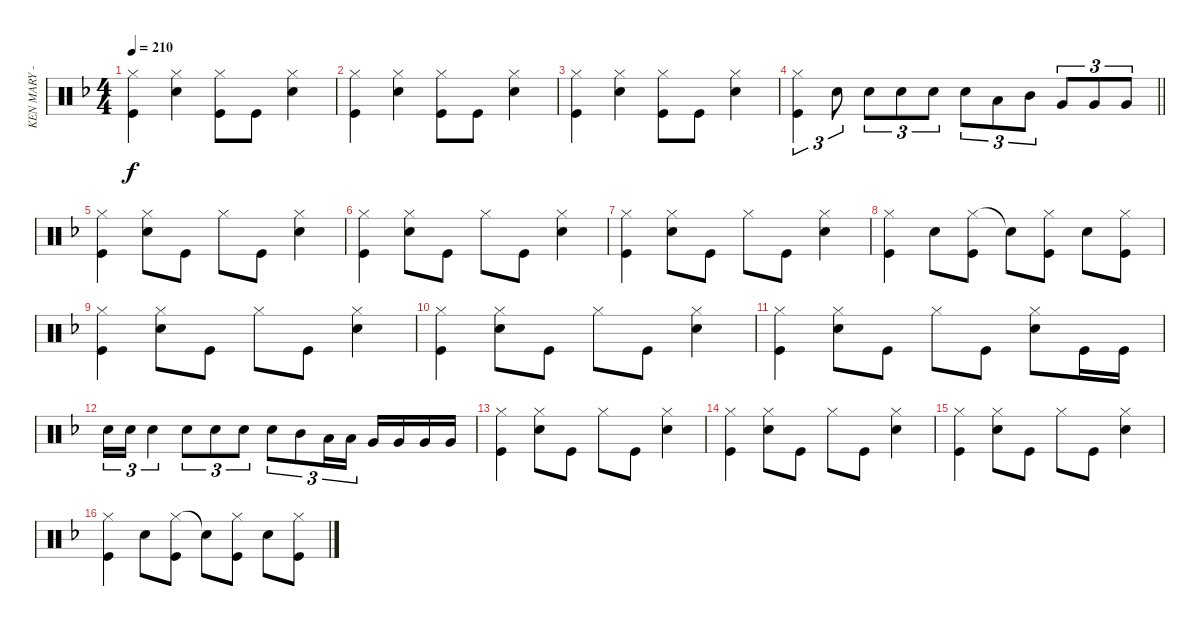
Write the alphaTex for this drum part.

\track ("KEN MARY - DRUMS" "KEN MARY -") {instrument percussion}
\staff {score}
\articulation defaults
\ts (4 4)
\tempo 210
\clef neutral
\ks f
("Hi-Hat (closed)" "Kick (hit)").4{dy f} ("Hi-Hat (closed)" "Snare (hit) 2").4 ("Hi-Hat (closed)" "Kick (hit)").8 "Kick (hit)".8 ("Hi-Hat (closed)" "Snare (hit) 2").4 |
("Hi-Hat (closed)" "Kick (hit)").4 ("Hi-Hat (closed)" "Snare (hit) 2").4 ("Hi-Hat (closed)" "Kick (hit)").8 "Kick (hit)".8 ("Hi-Hat (closed)" "Snare (hit) 2").4 |
("Hi-Hat (closed)" "Kick (hit)").4 ("Hi-Hat (closed)" "Snare (hit) 2").4 ("Hi-Hat (closed)" "Kick (hit)").8 "Kick (hit)".8 ("Hi-Hat (closed)" "Snare (hit) 2").4 |
\barLineRight lightlight
("Hi-Hat (closed)" "Kick (hit)").4{tu (3 2)} "Snare (hit) 2".8{tu (3 2)} "Snare (hit) 2".8{tu (3 2)} "Snare (hit) 2".8{tu (3 2)} "Snare (hit) 2".8{tu (3 2)} "Snare (hit) 2".8{tu (3 2)} "Low Tom (hit)".8{tu (3 2)} "Mid Tom (hit)".8{tu (3 2)} "Very Low Tom (hit)".8{tu (3 2)} "Very Low Tom (hit)".8{tu (3 2)} "Very Low Tom (hit)".8{tu (3 2)} |
("Hi-Hat (closed)" "Kick (hit)").4 ("Hi-Hat (closed)" "Snare (hit) 2").8 "Kick (hit)".8 "Hi-Hat (closed)".8 "Kick (hit)".8 ("Hi-Hat (closed)" "Snare (hit) 2").4 |
("Hi-Hat (closed)" "Kick (hit)").4 ("Hi-Hat (closed)" "Snare (hit) 2").8 "Kick (hit)".8 "Hi-Hat (closed)".8 "Kick (hit)".8 ("Hi-Hat (closed)" "Snare (hit) 2").4 |
("Hi-Hat (closed)" "Kick (hit)").4 ("Hi-Hat (closed)" "Snare (hit) 2").8 "Kick (hit)".8 "Hi-Hat (closed)".8 "Kick (hit)".8 ("Hi-Hat (closed)" "Snare (hit) 2").4 |
("Hi-Hat (closed)" "Kick (hit)").4 "Snare (hit) 2".8 ("Hi-Hat (closed)" "Kick (hit)").8 "Snare (hit)"{t}.8 ("Hi-Hat (closed)" "Kick (hit)").8 "Snare (hit) 2".8 ("Hi-Hat (closed)" "Kick (hit)").8 |
("Hi-Hat (closed)" "Kick (hit)").4 ("Hi-Hat (closed)" "Snare (hit) 2").8 "Kick (hit)".8 "Hi-Hat (closed)".8 "Kick (hit)".8 ("Hi-Hat (closed)" "Snare (hit) 2").4 |
("Hi-Hat (closed)" "Kick (hit)").4 ("Hi-Hat (closed)" "Snare (hit) 2").8 "Kick (hit)".8 "Hi-Hat (closed)".8 "Kick (hit)".8 ("Hi-Hat (closed)" "Snare (hit) 2").4 |
("Hi-Hat (closed)" "Kick (hit)").4 ("Hi-Hat (closed)" "Snare (hit) 2").8 "Kick (hit)".8 "Hi-Hat (closed)".8 "Kick (hit)".8 ("Hi-Hat (closed)" "Snare (hit) 2").8 "Kick (hit)".16 "Kick (hit)".16 |
"Snare (hit) 2".16{tu (3 2)} "Snare (hit) 2".16{tu (3 2)} "Snare (hit) 2".4{tu (3 2)} "Snare (hit) 2".8{tu (3 2)} "Snare (hit) 2".8{tu (3 2)} "Snare (hit) 2".8{tu (3 2)} "Snare (hit) 2".8{tu (3 2)} "Mid Tom (hit)".8{tu (3 2)} "Low Tom (hit)".16{tu (3 2)} "Low Tom (hit)".16{tu (3 2)} "Very Low Tom (hit)".16 "Very Low Tom (hit)".16 "Very Low Tom (hit)".16 "Very Low Tom (hit)".16 |
("Hi-Hat (closed)" "Kick (hit)").4 ("Hi-Hat (closed)" "Snare (hit) 2").8 "Kick (hit)".8 "Hi-Hat (closed)".8 "Kick (hit)".8 ("Hi-Hat (closed)" "Snare (hit) 2").4 |
("Hi-Hat (closed)" "Kick (hit)").4 ("Hi-Hat (closed)" "Snare (hit) 2").8 "Kick (hit)".8 "Hi-Hat (closed)".8 "Kick (hit)".8 ("Hi-Hat (closed)" "Snare (hit) 2").4 |
("Hi-Hat (closed)" "Kick (hit)").4 ("Hi-Hat (closed)" "Snare (hit) 2").8 "Kick (hit)".8 "Hi-Hat (closed)".8 "Kick (hit)".8 ("Hi-Hat (closed)" "Snare (hit) 2").4 |
("Hi-Hat (closed)" "Kick (hit)").4 "Snare (hit) 2".8 ("Hi-Hat (closed)" "Kick (hit)").8 "Snare (hit)"{t}.8 ("Hi-Hat (closed)" "Kick (hit)").8 "Snare (hit) 2".8 ("Hi-Hat (closed)" "Kick (hit)").8
